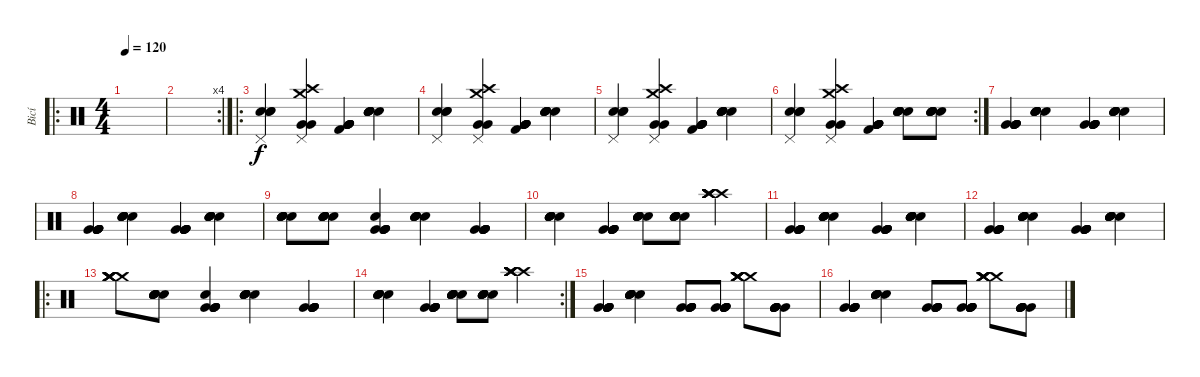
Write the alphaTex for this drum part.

\track ("Bicí" "Bicí") {instrument percussion}
\staff {score}
\articulation defaults
\ro
\ts (4 4)
\tempo 120
\clef neutral
\ks c
|
\rc 4
|
\ro
("Pedal Hi-Hat (hit)" "Electric Snare (hit)" "Electric Snare (hit)" "Electric Snare (hit)").4 ("Crash high (hit)" "Crash medium (hit)" "Pedal Hi-Hat (hit)" "Very Low Tom (hit)" "Very Low Tom (hit)").4 ("Kick (hit) 2" "Very Low Tom (hit)" "Very Low Tom (hit)" "Very Low Tom (hit)" "Very Low Tom (hit)" "Very Low Tom (hit)").4 ("Electric Snare (hit)" "Electric Snare (hit)" "Electric Snare (hit)" "Electric Snare (hit)" "Electric Snare (hit)" "Electric Snare (hit)").4 |
("Pedal Hi-Hat (hit)" "Electric Snare (hit)" "Electric Snare (hit)" "Electric Snare (hit)").4 ("Crash high (hit)" "Crash medium (hit)" "Pedal Hi-Hat (hit)" "Very Low Tom (hit)" "Very Low Tom (hit)").4 ("Kick (hit) 2" "Very Low Tom (hit)" "Very Low Tom (hit)" "Very Low Tom (hit)" "Very Low Tom (hit)" "Very Low Tom (hit)").4 ("Electric Snare (hit)" "Electric Snare (hit)" "Electric Snare (hit)" "Electric Snare (hit)" "Electric Snare (hit)" "Electric Snare (hit)").4 |
("Pedal Hi-Hat (hit)" "Electric Snare (hit)" "Electric Snare (hit)" "Electric Snare (hit)").4 ("Crash high (hit)" "Crash medium (hit)" "Pedal Hi-Hat (hit)" "Very Low Tom (hit)" "Very Low Tom (hit)").4 ("Kick (hit) 2" "Very Low Tom (hit)" "Very Low Tom (hit)" "Very Low Tom (hit)" "Very Low Tom (hit)" "Very Low Tom (hit)").4 ("Electric Snare (hit)" "Electric Snare (hit)" "Electric Snare (hit)" "Electric Snare (hit)" "Electric Snare (hit)" "Electric Snare (hit)").4 |
\rc 2
("Pedal Hi-Hat (hit)" "Electric Snare (hit)" "Electric Snare (hit)" "Electric Snare (hit)").4 ("Crash high (hit)" "Crash medium (hit)" "Pedal Hi-Hat (hit)" "Very Low Tom (hit)" "Very Low Tom (hit)").4 ("Kick (hit) 2" "Very Low Tom (hit)" "Very Low Tom (hit)" "Very Low Tom (hit)" "Very Low Tom (hit)" "Very Low Tom (hit)").4 ("Electric Snare (hit)" "Electric Snare (hit)" "Electric Snare (hit)" "Electric Snare (hit)" "Electric Snare (hit)" "Electric Snare (hit)").8 ("Electric Snare (hit)" "Electric Snare (hit)" "Electric Snare (hit)" "Electric Snare (hit)" "Electric Snare (hit)" "Electric Snare (hit)").8 |
("Very Low Tom (hit)" "Very Low Tom (hit)" "Very Low Tom (hit)" "Very Low Tom (hit)" "Very Low Tom (hit)" "Very Low Tom (hit)").4 ("Electric Snare (hit)" "Electric Snare (hit)" "Electric Snare (hit)" "Electric Snare (hit)" "Electric Snare (hit)" "Electric Snare (hit)").4 ("Very Low Tom (hit)" "Very Low Tom (hit)" "Very Low Tom (hit)" "Very Low Tom (hit)" "Very Low Tom (hit)" "Very Low Tom (hit)").4 ("Electric Snare (hit)" "Electric Snare (hit)" "Electric Snare (hit)" "Electric Snare (hit)" "Electric Snare (hit)" "Electric Snare (hit)").4 |
("Very Low Tom (hit)" "Very Low Tom (hit)" "Very Low Tom (hit)" "Very Low Tom (hit)" "Very Low Tom (hit)" "Very Low Tom (hit)").4 ("Electric Snare (hit)" "Electric Snare (hit)" "Electric Snare (hit)" "Electric Snare (hit)" "Electric Snare (hit)" "Electric Snare (hit)").4 ("Very Low Tom (hit)" "Very Low Tom (hit)" "Very Low Tom (hit)" "Very Low Tom (hit)" "Very Low Tom (hit)" "Very Low Tom (hit)").4 ("Electric Snare (hit)" "Electric Snare (hit)" "Electric Snare (hit)" "Electric Snare (hit)" "Electric Snare (hit)" "Electric Snare (hit)").4 |
("Electric Snare (hit)" "Electric Snare (hit)" "Electric Snare (hit)" "Electric Snare (hit)" "Electric Snare (hit)" "Electric Snare (hit)").8 ("Electric Snare (hit)" "Electric Snare (hit)" "Electric Snare (hit)" "Electric Snare (hit)" "Electric Snare (hit)" "Electric Snare (hit)").8 ("Very Low Tom (hit)" "Very Low Tom (hit)" "Very Low Tom (hit)" "Very Low Tom (hit)" "Very Low Tom (hit)" "Electric Snare (hit)").4 ("Electric Snare (hit)" "Electric Snare (hit)" "Electric Snare (hit)" "Electric Snare (hit)" "Electric Snare (hit)" "Electric Snare (hit)").4 ("Very Low Tom (hit)" "Very Low Tom (hit)" "Very Low Tom (hit)" "Very Low Tom (hit)" "Very Low Tom (hit)" "Very Low Tom (hit)").4 |
("Electric Snare (hit)" "Electric Snare (hit)" "Electric Snare (hit)" "Electric Snare (hit)" "Electric Snare (hit)" "Electric Snare (hit)").4 ("Very Low Tom (hit)" "Very Low Tom (hit)" "Very Low Tom (hit)" "Very Low Tom (hit)" "Very Low Tom (hit)" "Very Low Tom (hit)").4 ("Electric Snare (hit)" "Electric Snare (hit)" "Electric Snare (hit)" "Electric Snare (hit)" "Electric Snare (hit)" "Electric Snare (hit)").8 ("Electric Snare (hit)" "Electric Snare (hit)" "Electric Snare (hit)" "Electric Snare (hit)" "Electric Snare (hit)" "Electric Snare (hit)").8 ("Crash high (hit)" "Crash high (hit)" "Crash high (hit)" "Crash high (hit)" "Crash high (hit)" "Crash high (hit)").4 |
("Very Low Tom (hit)" "Very Low Tom (hit)" "Very Low Tom (hit)" "Very Low Tom (hit)" "Very Low Tom (hit)" "Very Low Tom (hit)").4 ("Electric Snare (hit)" "Electric Snare (hit)" "Electric Snare (hit)" "Electric Snare (hit)" "Electric Snare (hit)" "Electric Snare (hit)").4 ("Very Low Tom (hit)" "Very Low Tom (hit)" "Very Low Tom (hit)" "Very Low Tom (hit)" "Very Low Tom (hit)" "Very Low Tom (hit)").4 ("Electric Snare (hit)" "Electric Snare (hit)" "Electric Snare (hit)" "Electric Snare (hit)" "Electric Snare (hit)" "Electric Snare (hit)").4 |
("Very Low Tom (hit)" "Very Low Tom (hit)" "Very Low Tom (hit)" "Very Low Tom (hit)" "Very Low Tom (hit)" "Very Low Tom (hit)").4 ("Electric Snare (hit)" "Electric Snare (hit)" "Electric Snare (hit)" "Electric Snare (hit)" "Electric Snare (hit)" "Electric Snare (hit)").4 ("Very Low Tom (hit)" "Very Low Tom (hit)" "Very Low Tom (hit)" "Very Low Tom (hit)" "Very Low Tom (hit)" "Very Low Tom (hit)").4 ("Electric Snare (hit)" "Electric Snare (hit)" "Electric Snare (hit)" "Electric Snare (hit)" "Electric Snare (hit)" "Electric Snare (hit)").4 |
\ro
("Crash medium (hit)" "Crash medium (hit)" "Crash medium (hit)" "Crash medium (hit)" "Crash medium (hit)" "Crash medium (hit)").8 ("Electric Snare (hit)" "Electric Snare (hit)" "Electric Snare (hit)" "Electric Snare (hit)" "Electric Snare (hit)" "Electric Snare (hit)").8 ("Very Low Tom (hit)" "Very Low Tom (hit)" "Very Low Tom (hit)" "Very Low Tom (hit)" "Very Low Tom (hit)" "Electric Snare (hit)").4 ("Electric Snare (hit)" "Electric Snare (hit)" "Electric Snare (hit)" "Electric Snare (hit)" "Electric Snare (hit)" "Electric Snare (hit)").4 ("Very Low Tom (hit)" "Very Low Tom (hit)" "Very Low Tom (hit)" "Very Low Tom (hit)" "Very Low Tom (hit)" "Very Low Tom (hit)").4 |
\rc 2
("Electric Snare (hit)" "Electric Snare (hit)" "Electric Snare (hit)" "Electric Snare (hit)" "Electric Snare (hit)" "Electric Snare (hit)").4 ("Very Low Tom (hit)" "Very Low Tom (hit)" "Very Low Tom (hit)" "Very Low Tom (hit)" "Very Low Tom (hit)" "Very Low Tom (hit)").4 ("Electric Snare (hit)" "Electric Snare (hit)" "Electric Snare (hit)" "Electric Snare (hit)" "Electric Snare (hit)" "Electric Snare (hit)").8 ("Electric Snare (hit)" "Electric Snare (hit)" "Electric Snare (hit)" "Electric Snare (hit)" "Electric Snare (hit)" "Electric Snare (hit)").8 ("Crash high (hit)" "Crash high (hit)" "Crash high (hit)" "Crash high (hit)" "Crash high (hit)" "Crash high (hit)").4 |
("Very Low Tom (hit)" "Very Low Tom (hit)" "Very Low Tom (hit)" "Very Low Tom (hit)" "Very Low Tom (hit)" "Very Low Tom (hit)").4 ("Electric Snare (hit)" "Electric Snare (hit)" "Electric Snare (hit)" "Electric Snare (hit)" "Electric Snare (hit)" "Electric Snare (hit)").4 ("Very Low Tom (hit)" "Very Low Tom (hit)" "Very Low Tom (hit)" "Very Low Tom (hit)" "Very Low Tom (hit)" "Very Low Tom (hit)").8 ("Very Low Tom (hit)" "Very Low Tom (hit)" "Very Low Tom (hit)" "Very Low Tom (hit)" "Very Low Tom (hit)" "Very Low Tom (hit)").8 ("Crash medium (hit)" "Crash medium (hit)" "Crash medium (hit)" "Crash medium (hit)" "Crash medium (hit)" "Crash medium (hit)").8 ("Very Low Tom (hit)" "Very Low Tom (hit)" "Very Low Tom (hit)" "Very Low Tom (hit)" "Very Low Tom (hit)" "Very Low Tom (hit)").8 |
("Very Low Tom (hit)" "Very Low Tom (hit)" "Very Low Tom (hit)" "Very Low Tom (hit)" "Very Low Tom (hit)" "Very Low Tom (hit)").4 ("Electric Snare (hit)" "Electric Snare (hit)" "Electric Snare (hit)" "Electric Snare (hit)" "Electric Snare (hit)" "Electric Snare (hit)").4 ("Very Low Tom (hit)" "Very Low Tom (hit)" "Very Low Tom (hit)" "Very Low Tom (hit)" "Very Low Tom (hit)" "Very Low Tom (hit)").8 ("Very Low Tom (hit)" "Very Low Tom (hit)" "Very Low Tom (hit)" "Very Low Tom (hit)" "Very Low Tom (hit)" "Very Low Tom (hit)").8 ("Crash medium (hit)" "Crash medium (hit)" "Crash medium (hit)" "Crash medium (hit)" "Crash medium (hit)" "Crash medium (hit)").8 ("Very Low Tom (hit)" "Very Low Tom (hit)" "Very Low Tom (hit)" "Very Low Tom (hit)" "Very Low Tom (hit)" "Very Low Tom (hit)").8
